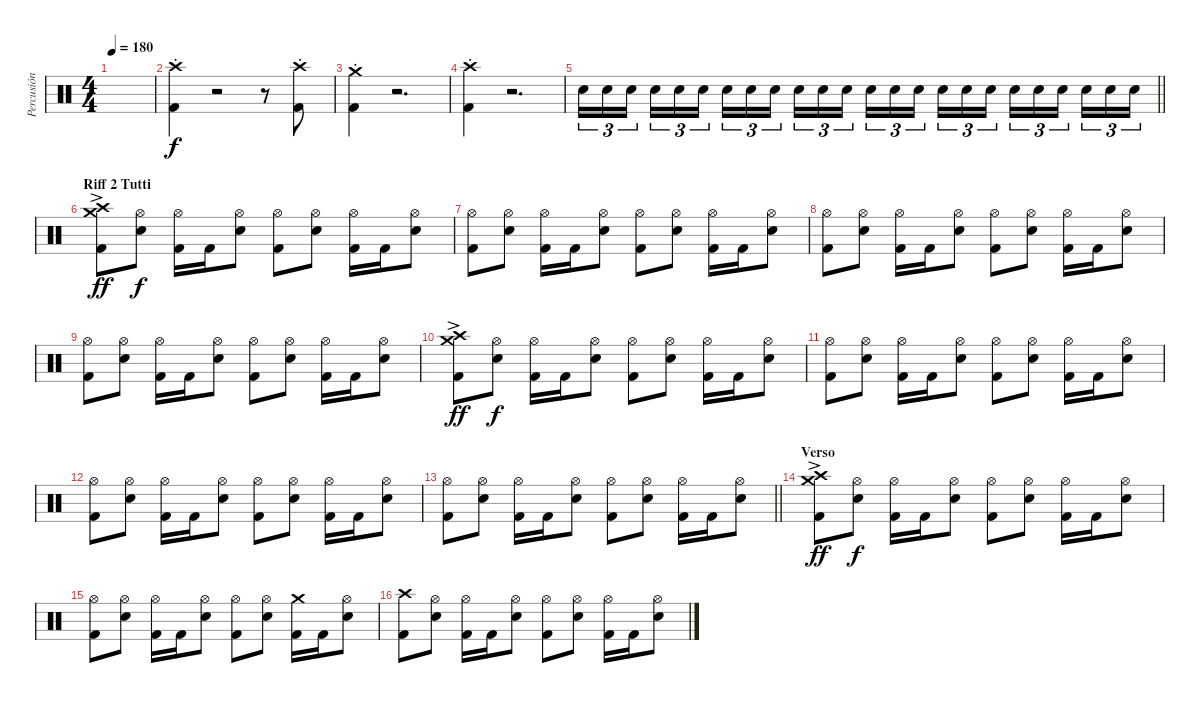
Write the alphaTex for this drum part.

\track ("Percusión" "Percusión") {instrument percussion}
\staff {score}
\articulation defaults
\ts (4 4)
\tempo 180
\clef neutral
\ks c
|
("Crash high (hit)"{st} "Kick (hit) 2"{st}).4 r.2 r.8 ("Crash high (hit)"{st} "Kick (hit) 2"{st}).8 |
("Crash medium (hit)"{st} "Kick (hit) 2"{st}).4 r.2{d} |
("Crash high (hit)"{st} "Kick (hit) 2"{st}).4 r.2{d} |
\barLineRight lightlight "Snare (hit) 2".16{tu (3 2)} "Snare (hit) 2".16{tu (3 2)} "Snare (hit) 2".16{tu (3 2) beam splitsecondary} "Snare (hit) 2".16{tu (3 2)} "Snare (hit) 2".16{tu (3 2)} "Snare (hit) 2".16{tu (3 2)} "Snare (hit) 2".16{tu (3 2)} "Snare (hit) 2".16{tu (3 2)} "Snare (hit) 2".16{tu (3 2) beam splitsecondary} "Snare (hit) 2".16{tu (3 2)} "Snare (hit) 2".16{tu (3 2)} "Snare (hit) 2".16{tu (3 2)} "Snare (hit) 2".16{tu (3 2)} "Snare (hit) 2".16{tu (3 2)} "Snare (hit) 2".16{tu (3 2) beam splitsecondary} "Snare (hit) 2".16{tu (3 2)} "Snare (hit) 2".16{tu (3 2)} "Snare (hit) 2".16{tu (3 2)} "Snare (hit) 2".16{tu (3 2)} "Snare (hit) 2".16{tu (3 2)} "Snare (hit) 2".16{tu (3 2) beam splitsecondary} "Snare (hit) 2".16{tu (3 2)} "Snare (hit) 2".16{tu (3 2)} "Snare (hit) 2".16{tu (3 2)}
|
\section ("" "Riff 2 Tutti")
("Crash medium (hit)"{ac} "Crash high (hit)" "Kick (hit) 2").8{dy ff} ("Hi-Hat (open)" "Snare (hit) 2").8{dy f} ("Hi-Hat (open)" "Kick (hit) 2").16 "Kick (hit) 2".16 ("Hi-Hat (open)" "Snare (hit) 2").8 ("Hi-Hat (open)" "Kick (hit) 2").8 ("Hi-Hat (open)" "Snare (hit) 2").8 ("Hi-Hat (open)" "Kick (hit) 2").16 "Kick (hit) 2".16 ("Hi-Hat (open)" "Snare (hit) 2").8 |
("Hi-Hat (open)" "Kick (hit) 2").8 ("Hi-Hat (open)" "Snare (hit) 2").8 ("Hi-Hat (open)" "Kick (hit) 2").16 "Kick (hit) 2".16 ("Hi-Hat (open)" "Snare (hit) 2").8 ("Hi-Hat (open)" "Kick (hit) 2").8 ("Hi-Hat (open)" "Snare (hit) 2").8 ("Hi-Hat (open)" "Kick (hit) 2").16 "Kick (hit) 2".16 ("Hi-Hat (open)" "Snare (hit) 2").8 |
("Hi-Hat (open)" "Kick (hit) 2").8 ("Hi-Hat (open)" "Snare (hit) 2").8 ("Hi-Hat (open)" "Kick (hit) 2").16 "Kick (hit) 2".16 ("Hi-Hat (open)" "Snare (hit) 2").8 ("Hi-Hat (open)" "Kick (hit) 2").8 ("Hi-Hat (open)" "Snare (hit) 2").8 ("Hi-Hat (open)" "Kick (hit) 2").16 "Kick (hit) 2".16 ("Hi-Hat (open)" "Snare (hit) 2").8 |
("Hi-Hat (open)" "Kick (hit) 2").8 ("Hi-Hat (open)" "Snare (hit) 2").8 ("Hi-Hat (open)" "Kick (hit) 2").16 "Kick (hit) 2".16 ("Hi-Hat (open)" "Snare (hit) 2").8 ("Hi-Hat (open)" "Kick (hit) 2").8 ("Hi-Hat (open)" "Snare (hit) 2").8 ("Hi-Hat (open)" "Kick (hit) 2").16 "Kick (hit) 2".16 ("Hi-Hat (open)" "Snare (hit) 2").8 |
("Crash medium (hit)"{ac} "Crash high (hit)" "Kick (hit) 2").8{dy ff} ("Hi-Hat (open)" "Snare (hit) 2").8{dy f} ("Hi-Hat (open)" "Kick (hit) 2").16 "Kick (hit) 2".16 ("Hi-Hat (open)" "Snare (hit) 2").8 ("Hi-Hat (open)" "Kick (hit) 2").8 ("Hi-Hat (open)" "Snare (hit) 2").8 ("Hi-Hat (open)" "Kick (hit) 2").16 "Kick (hit) 2".16 ("Hi-Hat (open)" "Snare (hit) 2").8 |
("Hi-Hat (open)" "Kick (hit) 2").8 ("Hi-Hat (open)" "Snare (hit) 2").8 ("Hi-Hat (open)" "Kick (hit) 2").16 "Kick (hit) 2".16 ("Hi-Hat (open)" "Snare (hit) 2").8 ("Hi-Hat (open)" "Kick (hit) 2").8 ("Hi-Hat (open)" "Snare (hit) 2").8 ("Hi-Hat (open)" "Kick (hit) 2").16 "Kick (hit) 2".16 ("Hi-Hat (open)" "Snare (hit) 2").8 |
("Hi-Hat (open)" "Kick (hit) 2").8 ("Hi-Hat (open)" "Snare (hit) 2").8 ("Hi-Hat (open)" "Kick (hit) 2").16 "Kick (hit) 2".16 ("Hi-Hat (open)" "Snare (hit) 2").8 ("Hi-Hat (open)" "Kick (hit) 2").8 ("Hi-Hat (open)" "Snare (hit) 2").8 ("Hi-Hat (open)" "Kick (hit) 2").16 "Kick (hit) 2".16 ("Hi-Hat (open)" "Snare (hit) 2").8 |
\barLineRight lightlight
("Hi-Hat (open)" "Kick (hit) 2").8 ("Hi-Hat (open)" "Snare (hit) 2").8 ("Hi-Hat (open)" "Kick (hit) 2").16 "Kick (hit) 2".16 ("Hi-Hat (open)" "Snare (hit) 2").8 ("Hi-Hat (open)" "Kick (hit) 2").8 ("Hi-Hat (open)" "Snare (hit) 2").8 ("Hi-Hat (open)" "Kick (hit) 2").16 "Kick (hit) 2".16 ("Hi-Hat (open)" "Snare (hit) 2").8 |
\section ("" "Verso")
("Crash medium (hit)"{ac} "Crash high (hit)" "Kick (hit) 2").8{dy ff} ("Hi-Hat (open)" "Snare (hit) 2").8{dy f} ("Hi-Hat (open)" "Kick (hit) 2").16 "Kick (hit) 2".16 ("Hi-Hat (open)" "Snare (hit) 2").8 ("Hi-Hat (open)" "Kick (hit) 2").8 ("Hi-Hat (open)" "Snare (hit) 2").8 ("Hi-Hat (open)" "Kick (hit) 2").16 "Kick (hit) 2".16 ("Hi-Hat (open)" "Snare (hit) 2").8 |
("Hi-Hat (open)" "Kick (hit) 2").8 ("Hi-Hat (open)" "Snare (hit) 2").8 ("Hi-Hat (open)" "Kick (hit) 2").16 "Kick (hit) 2".16 ("Hi-Hat (open)" "Snare (hit) 2").8 ("Hi-Hat (open)" "Kick (hit) 2").8 ("Hi-Hat (open)" "Snare (hit) 2").8 ("Crash medium (hit)" "Kick (hit) 2").16 "Kick (hit) 2".16 ("Hi-Hat (open)" "Snare (hit) 2").8 |
("Crash high (hit)" "Kick (hit) 2").8 ("Hi-Hat (open)" "Snare (hit) 2").8 ("Hi-Hat (open)" "Kick (hit) 2").16 "Kick (hit) 2".16 ("Hi-Hat (open)" "Snare (hit) 2").8 ("Hi-Hat (open)" "Kick (hit) 2").8 ("Hi-Hat (open)" "Snare (hit) 2").8 ("Hi-Hat (open)" "Kick (hit) 2").16 "Kick (hit) 2".16 ("Hi-Hat (open)" "Snare (hit) 2").8
